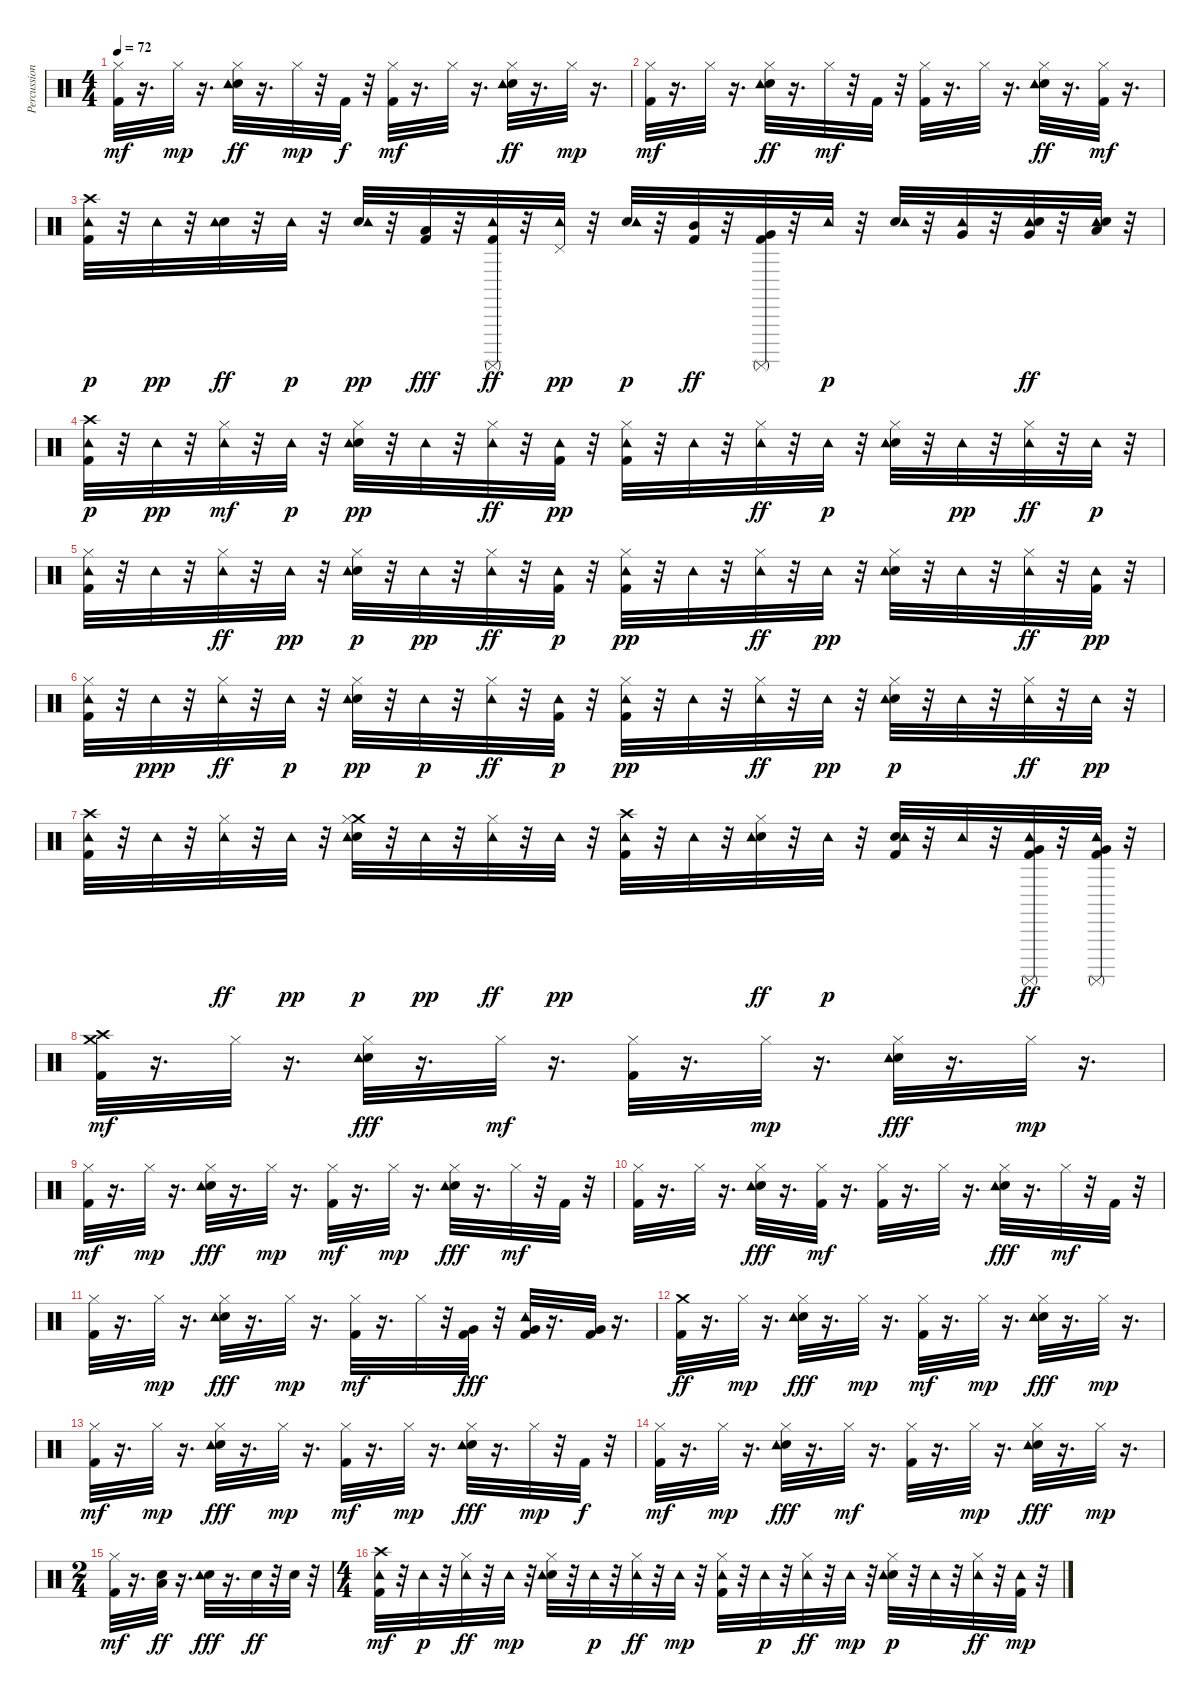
\track ("Percussion" "Percussion") {instrument percussion}
\staff {score}
\articulation defaults
\ts (4 4)
\tempo 72
\clef neutral
\ks c
("Hi-Hat (closed)" "Kick (hit) 2").32{dy mf} r.16{d} "Hi-Hat (closed)".32{dy mp} r.16{d} ("Hi-Hat (closed)" "Snare (hit) 2" "Tambourine (hit)").32{dy ff} r.16{d} "Hi-Hat (closed)".32{dy mp} r.32 "Kick (hit) 2".32{dy f} r.32 ("Kick (hit) 2" "Hi-Hat (closed)").32{dy mf} r.16{d} "Hi-Hat (closed)".32 r.16{d} ("Hi-Hat (closed)" "Snare (hit) 2" "Tambourine (hit)").32{dy ff} r.16{d} "Hi-Hat (closed)".32{dy mp} r.16{d} |
("Kick (hit) 2" "Hi-Hat (closed)").32{dy mf} r.16{d} "Hi-Hat (closed)".32 r.16{d} ("Hi-Hat (closed)" "Snare (hit) 2" "Tambourine (hit)").32{dy ff} r.16{d} "Hi-Hat (closed)".32{dy mf} r.32 "Kick (hit) 2".32 r.32 ("Hi-Hat (closed)" "Kick (hit) 2").32 r.16{d} "Hi-Hat (closed)".32 r.16{d} ("Hi-Hat (closed)" "Snare (hit) 2" "Tambourine (hit)").32{dy ff} r.16{d} ("Hi-Hat (closed)" "Kick (hit) 2").32{dy mf} r.16{d} |
("Crash high (hit)" "Kick (hit) 2" "Tambourine (hit)").32{dy p} r.32 "Tambourine (hit)".32{dy pp} r.32 ("Snare (hit) 2" "Tambourine (hit)").32{dy ff} r.32 "Tambourine (hit)".32{dy p} r.32 ("Snare (hit) 2" "Tambourine (hit)").32{dy pp} r.32 ("Low Tom (hit)" "Kick (hit) 2").32{dy fff} r.32 ("Tambourine (hit)" "Surdo (mute)" "Kick (hit) 2").32{dy ff} r.32 ("Pedal Hi-Hat (hit)" "Tambourine (hit)").32{dy pp} r.32 ("Snare (hit) 2" "Tambourine (hit)").32{dy p} r.32 ("Mid Tom (hit)" "Kick (hit) 2").32{dy ff} r.32 ("Very Low Tom (hit)" "Kick (hit) 2" "Surdo (mute)").32 r.32 "Tambourine (hit)".32{dy p} r.32 ("Snare (hit) 2" "Tambourine (hit)").32 r.32 ("Very Low Tom (hit)" "Tambourine (hit)").32 r.32 ("Very Low Tom (hit)" "Tambourine (hit)" "Snare (hit) 2").32{dy ff} r.32 ("Low Floor Tom (hit)" "Tambourine (hit)" "Snare (hit) 2").32 r.32 |
("Kick (hit) 2" "Crash high (hit)" "Tambourine (hit)").32{dy p} r.32 "Tambourine (hit)".32{dy pp} r.32 ("Hi-Hat (closed)" "Tambourine (hit)").32{dy mf} r.32 "Tambourine (hit)".32{dy p} r.32 ("Snare (hit) 2" "Hi-Hat (closed)" "Tambourine (hit)").32{dy pp} r.32 "Tambourine (hit)".32 r.32 ("Hi-Hat (closed)" "Tambourine (hit)").32{dy ff} r.32 ("Kick (hit) 2" "Tambourine (hit)").32{dy pp} r.32 ("Kick (hit) 2" "Hi-Hat (closed)" "Tambourine (hit)").32 r.32 "Tambourine (hit)".32 r.32 ("Hi-Hat (closed)" "Tambourine (hit)").32{dy ff} r.32 "Tambourine (hit)".32{dy p} r.32 ("Snare (hit) 2" "Hi-Hat (closed)" "Tambourine (hit)").32 r.32 "Tambourine (hit)".32{dy pp} r.32 ("Hi-Hat (closed)" "Tambourine (hit)").32{dy ff} r.32 "Tambourine (hit)".32{dy p} r.32 |
("Kick (hit) 2" "Hi-Hat (closed)" "Tambourine (hit)").32 r.32 "Tambourine (hit)".32 r.32 ("Hi-Hat (closed)" "Tambourine (hit)").32{dy ff} r.32 "Tambourine (hit)".32{dy pp} r.32 ("Snare (hit) 2" "Hi-Hat (closed)" "Tambourine (hit)").32{dy p} r.32 "Tambourine (hit)".32{dy pp} r.32 ("Hi-Hat (closed)" "Tambourine (hit)").32{dy ff} r.32 ("Kick (hit) 2" "Tambourine (hit)").32{dy p} r.32 ("Kick (hit) 2" "Hi-Hat (closed)" "Tambourine (hit)").32{dy pp} r.32 "Tambourine (hit)".32 r.32 ("Hi-Hat (closed)" "Tambourine (hit)").32{dy ff} r.32 "Tambourine (hit)".32{dy pp} r.32 ("Snare (hit) 2" "Hi-Hat (closed)" "Tambourine (hit)").32 r.32 "Tambourine (hit)".32 r.32 ("Hi-Hat (closed)" "Tambourine (hit)").32{dy ff} r.32 ("Kick (hit) 2" "Tambourine (hit)").32{dy pp} r.32 |
("Kick (hit) 2" "Hi-Hat (closed)" "Tambourine (hit)").32 r.32 "Tambourine (hit)".32{dy ppp} r.32 ("Hi-Hat (closed)" "Tambourine (hit)").32{dy ff} r.32 "Tambourine (hit)".32{dy p} r.32 ("Snare (hit) 2" "Hi-Hat (closed)" "Tambourine (hit)").32{dy pp} r.32 "Tambourine (hit)".32{dy p} r.32 ("Hi-Hat (closed)" "Tambourine (hit)").32{dy ff} r.32 ("Kick (hit) 2" "Tambourine (hit)").32{dy p} r.32 ("Kick (hit) 2" "Hi-Hat (closed)" "Tambourine (hit)").32{dy pp} r.32 "Tambourine (hit)".32 r.32 ("Hi-Hat (closed)" "Tambourine (hit)").32{dy ff} r.32 "Tambourine (hit)".32{dy pp} r.32 ("Snare (hit) 2" "Hi-Hat (closed)" "Tambourine (hit)").32{dy p} r.32 "Tambourine (hit)".32 r.32 ("Hi-Hat (closed)" "Tambourine (hit)").32{dy ff} r.32 "Tambourine (hit)".32{dy pp} r.32 |
("Kick (hit) 2" "Crash high (hit)" "Tambourine (hit)").32 r.32 "Tambourine (hit)".32 r.32 ("Hi-Hat (closed)" "Tambourine (hit)").32{dy ff} r.32 "Tambourine (hit)".32{dy pp} r.32 ("Snare (hit) 2" "Crash medium (hit)" "Hi-Hat (closed)" "Tambourine (hit)").32{dy p} r.32 "Tambourine (hit)".32{dy pp} r.32 ("Hi-Hat (closed)" "Tambourine (hit)").32{dy ff} r.32 "Tambourine (hit)".32{dy pp} r.32 ("Kick (hit) 2" "Crash high (hit)" "Tambourine (hit)").32 r.32 "Tambourine (hit)".32 r.32 ("Hi-Hat (closed)" "Snare (hit) 2" "Tambourine (hit)").32{dy ff} r.32 "Tambourine (hit)".32{dy p} r.32 ("Snare (hit) 2" "Kick (hit) 2" "Tambourine (hit)").32 r.32 "Tambourine (hit)".32 r.32 ("Very Low Tom (hit)" "Tambourine (hit)" "Kick (hit) 2" "Surdo (mute)").32{dy ff} r.32 ("Very Low Tom (hit)" "Tambourine (hit)" "Kick (hit) 2" "Surdo (mute)").32 r.32 |
("Crash high (hit)" "Kick (hit) 2" "Crash medium (hit)").32{dy mf} r.16{d} "Hi-Hat (closed)".32 r.16{d} ("Snare (hit) 2" "Hi-Hat (closed)" "Tambourine (hit)").32{dy fff} r.16{d} "Hi-Hat (closed)".32{dy mf} r.16{d} ("Hi-Hat (closed)" "Kick (hit) 2").32 r.16{d} "Hi-Hat (closed)".32{dy mp} r.16{d} ("Hi-Hat (closed)" "Snare (hit) 2" "Tambourine (hit)").32{dy fff} r.16{d} "Hi-Hat (closed)".32{dy mp} r.16{d} |
("Hi-Hat (closed)" "Kick (hit) 2").32{dy mf} r.16{d} "Hi-Hat (closed)".32{dy mp} r.16{d} ("Hi-Hat (closed)" "Snare (hit) 2" "Tambourine (hit)").32{dy fff} r.16{d} "Hi-Hat (closed)".32{dy mp} r.16{d} ("Hi-Hat (closed)" "Kick (hit) 2").32{dy mf} r.16{d} "Hi-Hat (closed)".32{dy mp} r.16{d} ("Snare (hit) 2" "Hi-Hat (closed)" "Tambourine (hit)").32{dy fff} r.16{d} "Hi-Hat (closed)".32{dy mf} r.32 "Kick (hit) 2".32 r.32 |
("Kick (hit) 2" "Hi-Hat (closed)").32 r.16{d} "Hi-Hat (closed)".32 r.16{d} ("Snare (hit) 2" "Hi-Hat (closed)" "Tambourine (hit)").32{dy fff} r.16{d} ("Hi-Hat (closed)" "Kick (hit) 2").32{dy mf} r.16{d} ("Hi-Hat (closed)" "Kick (hit) 2").32 r.16{d} "Hi-Hat (closed)".32 r.16{d} ("Hi-Hat (closed)" "Snare (hit) 2" "Tambourine (hit)").32{dy fff} r.16{d} "Hi-Hat (closed)".32{dy mf} r.32 "Kick (hit) 2".32 r.32 |
("Hi-Hat (closed)" "Kick (hit) 2").32 r.16{d} "Hi-Hat (closed)".32{dy mp} r.16{d} ("Snare (hit) 2" "Hi-Hat (closed)" "Tambourine (hit)").32{dy fff} r.16{d} "Hi-Hat (closed)".32{dy mp} r.16{d} ("Kick (hit) 2" "Hi-Hat (closed)").32{dy mf} r.16{d} "Hi-Hat (closed)".32 r.32 ("Very Low Tom (hit)" "Kick (hit) 2").32{dy fff} r.32 ("Very Low Tom (hit)" "Tambourine (hit)" "Kick (hit) 2").32 r.16{d} ("Very Low Tom (hit)" "Kick (hit) 2").32 r.16{d} |
("Crash medium (hit)" "Kick (hit) 2").32{dy ff} r.16{d} "Hi-Hat (closed)".32{dy mp} r.16{d} ("Snare (hit) 2" "Hi-Hat (closed)" "Tambourine (hit)").32{dy fff} r.16{d} "Hi-Hat (closed)".32{dy mp} r.16{d} ("Hi-Hat (closed)" "Kick (hit) 2").32{dy mf} r.16{d} "Hi-Hat (closed)".32{dy mp} r.16{d} ("Snare (hit) 2" "Hi-Hat (closed)" "Tambourine (hit)").32{dy fff} r.16{d} "Hi-Hat (closed)".32{dy mp} r.16{d} |
("Hi-Hat (closed)" "Kick (hit) 2").32{dy mf} r.16{d} "Hi-Hat (closed)".32{dy mp} r.16{d} ("Snare (hit) 2" "Hi-Hat (closed)" "Tambourine (hit)").32{dy fff} r.16{d} "Hi-Hat (closed)".32{dy mp} r.16{d} ("Hi-Hat (closed)" "Kick (hit) 2").32{dy mf} r.16{d} "Hi-Hat (closed)".32{dy mp} r.16{d} ("Snare (hit) 2" "Hi-Hat (closed)" "Tambourine (hit)").32{dy fff} r.16{d} "Hi-Hat (closed)".32{dy mp} r.32 "Kick (hit) 2".32{dy f} r.32 |
("Hi-Hat (closed)" "Kick (hit) 2").32{dy mf} r.16{d} "Hi-Hat (closed)".32{dy mp} r.16{d} ("Hi-Hat (closed)" "Snare (hit) 2" "Tambourine (hit)").32{dy fff} r.16{d} "Hi-Hat (closed)".32{dy mf} r.16{d} ("Kick (hit) 2" "Hi-Hat (closed)").32 r.16{d} "Hi-Hat (closed)".32{dy mp} r.16{d} ("Hi-Hat (closed)" "Snare (hit) 2" "Tambourine (hit)").32{dy fff} r.16{d} "Hi-Hat (closed)".32{dy mp} r.16{d} |
\ts (2 4)
("Kick (hit) 2" "Hi-Hat (closed)").32{dy mf} r.16{d} ("Snare (hit) 2" "Low Tom (hit)").32{dy ff} r.16{d} ("Snare (hit) 2" "Tambourine (hit)").32{dy fff} r.16{d} "Snare (hit) 2".32{dy ff} r.32 "Snare (hit) 2".32 r.32 |
\ts (4 4)
("Crash high (hit)" "Kick (hit) 2" "Tambourine (hit)").32{dy mf} r.32 "Tambourine (hit)".32{dy p} r.32 ("Hi-Hat (closed)" "Tambourine (hit)").32{dy ff} r.32 "Tambourine (hit)".32{dy mp} r.32 ("Hi-Hat (closed)" "Snare (hit) 2" "Tambourine (hit)").32 r.32 "Tambourine (hit)".32{dy p} r.32 ("Hi-Hat (closed)" "Tambourine (hit)").32{dy ff} r.32 "Tambourine (hit)".32{dy mp} r.32 ("Kick (hit) 2" "Hi-Hat (closed)" "Tambourine (hit)").32 r.32 "Tambourine (hit)".32{dy p} r.32 ("Hi-Hat (closed)" "Tambourine (hit)").32{dy ff} r.32 "Tambourine (hit)".32{dy mp} r.32 ("Hi-Hat (closed)" "Snare (hit) 2" "Tambourine (hit)").32{dy p} r.32 "Tambourine (hit)".32 r.32 ("Hi-Hat (closed)" "Tambourine (hit)").32{dy ff} r.32 ("Kick (hit) 2" "Tambourine (hit)").32{dy mp} r.32
